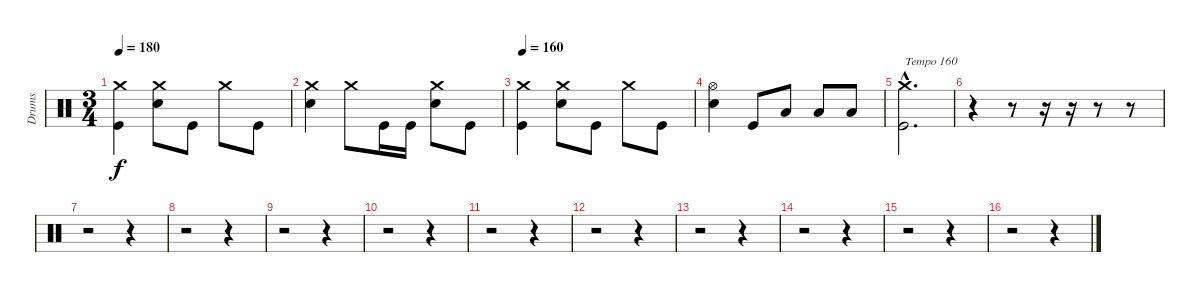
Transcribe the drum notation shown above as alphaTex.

\track ("Drums" "Drums") {instrument percussion}
\staff {score}
\articulation defaults
\ts (3 4)
\tempo 180
\clef neutral
\ks c
("Crash medium (hit)" "Kick (hit)").4{dy f} ("Crash medium (hit)" "Electric Snare (hit)").8 "Kick (hit)".8 "Crash medium (hit)".8 "Kick (hit)".8 |
("Crash medium (hit)" "Electric Snare (hit)").4 "Crash medium (hit)".8 "Kick (hit)".16 "Kick (hit)".16 ("Crash medium (hit)" "Electric Snare (hit)").8 "Kick (hit)".8 |
\tempo 160
("Crash medium (hit)" "Kick (hit)").4 ("Crash medium (hit)" "Electric Snare (hit)").8 "Kick (hit)".8 "Crash medium (hit)".8 "Kick (hit)".8 |
("Hi-Hat (open)" "Electric Snare (hit)").4 "Kick (hit)".8 "Low Tom (hit)".8 "Low Floor Tom (hit)".8 "Low Floor Tom (hit)".8 |
("Crash medium (hit)"{hac} "Kick (hit)"{hac}).2{d txt "Tempo 160"} |
r.4 r.8 r.16 r.16 r.8 r.8 |
r.2 r.4 |
r.2 r.4 |
r.2 r.4 |
r.2 r.4 |
r.2 r.4 |
r.2 r.4 |
r.2 r.4 |
r.2 r.4 |
r.2 r.4 |
r.2 r.4
